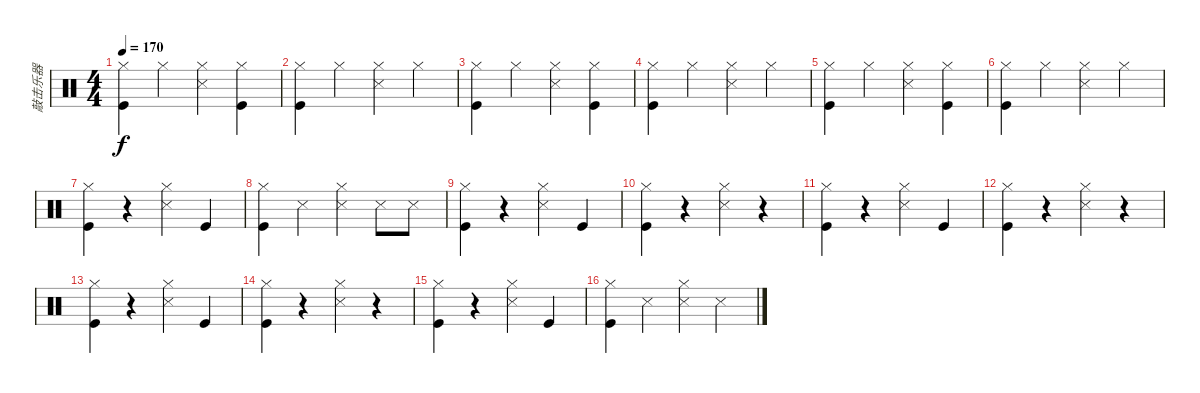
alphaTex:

\track ("敲击乐器" "敲击乐器") {instrument percussion}
\staff {score}
\articulation defaults
\ts (4 4)
\tempo 170
\clef neutral
\ks c
("Hi-Hat (closed)" "Kick (hit)").4{dy f} "Hi-Hat (closed)".4 ("Hi-Hat (closed)" "Snare (side stick) 3").4 ("Hi-Hat (closed)" "Kick (hit)").4 |
("Hi-Hat (closed)" "Kick (hit)").4 "Hi-Hat (closed)".4 ("Hi-Hat (closed)" "Snare (side stick) 3").4 "Hi-Hat (closed)".4 |
("Hi-Hat (closed)" "Kick (hit)").4 "Hi-Hat (closed)".4 ("Hi-Hat (closed)" "Snare (side stick) 3").4 ("Hi-Hat (closed)" "Kick (hit)").4 |
("Hi-Hat (closed)" "Kick (hit)").4 "Hi-Hat (closed)".4 ("Hi-Hat (closed)" "Snare (side stick) 3").4 "Hi-Hat (closed)".4 |
("Hi-Hat (closed)" "Kick (hit)").4 "Hi-Hat (closed)".4 ("Hi-Hat (closed)" "Snare (side stick) 3").4 ("Hi-Hat (closed)" "Kick (hit)").4 |
("Hi-Hat (closed)" "Kick (hit)").4 "Hi-Hat (closed)".4 ("Hi-Hat (closed)" "Snare (side stick) 3").4 "Hi-Hat (closed)".4 |
("Hi-Hat (closed)" "Kick (hit)").4 r.4 ("Hi-Hat (closed)" "Snare (side stick) 3").4 "Kick (hit)".4 |
("Hi-Hat (closed)" "Kick (hit)").4 "Snare (side stick) 3".4 ("Hi-Hat (closed)" "Snare (side stick) 3").4 "Snare (side stick) 3".8 "Snare (side stick) 3".8 |
("Hi-Hat (closed)" "Kick (hit)").4 r.4 ("Hi-Hat (closed)" "Snare (side stick) 3").4 "Kick (hit)".4 |
("Hi-Hat (closed)" "Kick (hit)").4 r.4 ("Hi-Hat (closed)" "Snare (side stick) 3").4 r.4 |
("Hi-Hat (closed)" "Kick (hit)").4 r.4 ("Hi-Hat (closed)" "Snare (side stick) 3").4 "Kick (hit)".4 |
("Hi-Hat (closed)" "Kick (hit)").4 r.4 ("Hi-Hat (closed)" "Snare (side stick) 3").4 r.4 |
("Hi-Hat (closed)" "Kick (hit)").4 r.4 ("Hi-Hat (closed)" "Snare (side stick) 3").4 "Kick (hit)".4 |
("Hi-Hat (closed)" "Kick (hit)").4 r.4 ("Hi-Hat (closed)" "Snare (side stick) 3").4 r.4 |
("Hi-Hat (closed)" "Kick (hit)").4 r.4 ("Hi-Hat (closed)" "Snare (side stick) 3").4 "Kick (hit)".4 |
("Hi-Hat (closed)" "Kick (hit)").4 "Snare (side stick) 3".4 ("Hi-Hat (closed)" "Snare (side stick) 3").4 "Snare (side stick) 3".4
